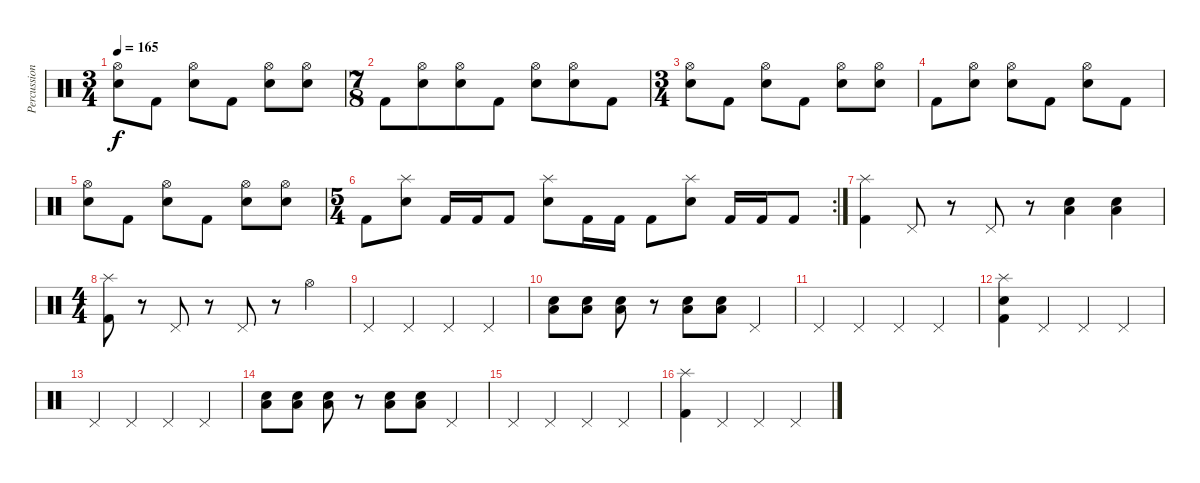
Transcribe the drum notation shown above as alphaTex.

\track ("Percussion" "Percussion") {instrument percussion}
\staff {score}
\articulation defaults
\ts (3 4)
\tempo 165
\clef neutral
\ks c
("Hi-Hat (open)" "Electric Snare (hit)").8{dy f} "Kick (hit) 2".8 ("Hi-Hat (open)" "Electric Snare (hit)").8 "Kick (hit) 2".8 ("Hi-Hat (open)" "Electric Snare (hit)").8 ("Hi-Hat (open)" "Electric Snare (hit)").8 |
\ts (7 8)
"Kick (hit) 2".8 ("Hi-Hat (open)" "Electric Snare (hit)").8 ("Hi-Hat (open)" "Electric Snare (hit)").8 "Kick (hit) 2".8 ("Hi-Hat (open)" "Electric Snare (hit)").8 ("Hi-Hat (open)" "Electric Snare (hit)").8 "Kick (hit) 2".8 |
\ts (3 4)
("Hi-Hat (open)" "Electric Snare (hit)").8 "Kick (hit) 2".8 ("Hi-Hat (open)" "Electric Snare (hit)").8 "Kick (hit) 2".8 ("Hi-Hat (open)" "Electric Snare (hit)").8 ("Hi-Hat (open)" "Electric Snare (hit)").8 |
"Kick (hit) 2".8 ("Hi-Hat (open)" "Electric Snare (hit)").8 ("Hi-Hat (open)" "Electric Snare (hit)").8 "Kick (hit) 2".8 ("Hi-Hat (open)" "Electric Snare (hit)").8 "Kick (hit) 2".8 |
("Hi-Hat (open)" "Electric Snare (hit)").8 "Kick (hit) 2".8 ("Hi-Hat (open)" "Electric Snare (hit)").8 "Kick (hit) 2".8 ("Hi-Hat (open)" "Electric Snare (hit)").8 ("Hi-Hat (open)" "Electric Snare (hit)").8 |
\rc 2
\ts (5 4)
"Kick (hit) 2".8 ("Splash (hit)" "Electric Snare (hit)").8 "Kick (hit) 2".16 "Kick (hit) 2".16 "Kick (hit) 2".8 ("Splash (hit)" "Electric Snare (hit)").8 "Kick (hit) 2".16 "Kick (hit) 2".16 "Kick (hit) 2".8 ("Splash (hit)" "Electric Snare (hit)").8 "Kick (hit) 2".16 "Kick (hit) 2".16 "Kick (hit) 2".8 |
("Splash (hit)" "Kick (hit) 2").4 "Pedal Hi-Hat (hit)".8 r.8 "Pedal Hi-Hat (hit)".8 r.8 ("Low Floor Tom (hit)" "Electric Snare (hit)").4 ("Low Floor Tom (hit)" "Electric Snare (hit)").4 |
\ts (4 4)
("Splash (hit)" "Kick (hit) 2").8 r.8 "Pedal Hi-Hat (hit)".8 r.8 "Pedal Hi-Hat (hit)".8 r.8 "Hi-Hat (open)".4 |
"Pedal Hi-Hat (hit)".4 "Pedal Hi-Hat (hit)".4 "Pedal Hi-Hat (hit)".4 "Pedal Hi-Hat (hit)".4 |
("Electric Snare (hit)" "Low Floor Tom (hit)").8 ("Electric Snare (hit)" "Low Floor Tom (hit)").8 ("Electric Snare (hit)" "Low Floor Tom (hit)").8 r.8 ("Electric Snare (hit)" "Low Floor Tom (hit)").8 ("Electric Snare (hit)" "Low Floor Tom (hit)").8 "Pedal Hi-Hat (hit)".4 |
"Pedal Hi-Hat (hit)".4 "Pedal Hi-Hat (hit)".4 "Pedal Hi-Hat (hit)".4 "Pedal Hi-Hat (hit)".4 |
("Splash (hit)" "Electric Snare (hit)" "Kick (hit) 2").4 "Pedal Hi-Hat (hit)".4 "Pedal Hi-Hat (hit)".4 "Pedal Hi-Hat (hit)".4 |
"Pedal Hi-Hat (hit)".4 "Pedal Hi-Hat (hit)".4 "Pedal Hi-Hat (hit)".4 "Pedal Hi-Hat (hit)".4 |
("Electric Snare (hit)" "Low Floor Tom (hit)").8 ("Electric Snare (hit)" "Low Floor Tom (hit)").8 ("Electric Snare (hit)" "Low Floor Tom (hit)").8 r.8 ("Electric Snare (hit)" "Low Floor Tom (hit)").8 ("Electric Snare (hit)" "Low Floor Tom (hit)").8 "Pedal Hi-Hat (hit)".4 |
"Pedal Hi-Hat (hit)".4 "Pedal Hi-Hat (hit)".4 "Pedal Hi-Hat (hit)".4 "Pedal Hi-Hat (hit)".4 |
("Splash (hit)" "Kick (hit) 2").4 "Pedal Hi-Hat (hit)".4 "Pedal Hi-Hat (hit)".4 "Pedal Hi-Hat (hit)".4
